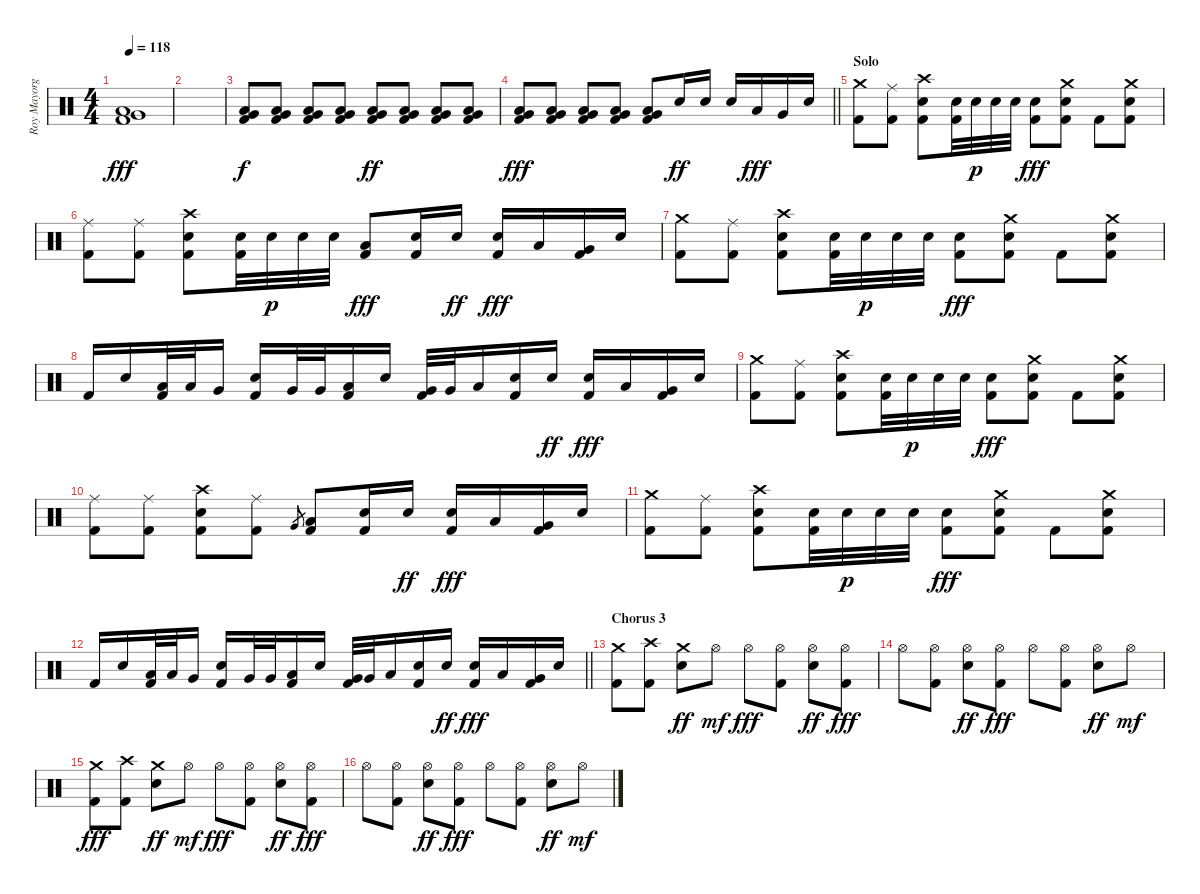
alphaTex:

\track ("Roy Mayorga" "Roy Mayorg") {instrument percussion}
\staff {score}
\articulation defaults
\ts (4 4)
\tempo 118
\clef neutral
\ks c
("Very Low Tom (hit)" "Low Floor Tom (hit)" "Kick (hit) 2").1{dy fff} |
|
("Very Low Tom (hit)" "Low Floor Tom (hit)" "Kick (hit) 2").8{dy f} ("Very Low Tom (hit)" "Low Floor Tom (hit)" "Kick (hit) 2").8 ("Very Low Tom (hit)" "Low Floor Tom (hit)" "Kick (hit) 2").8 ("Very Low Tom (hit)" "Low Floor Tom (hit)" "Kick (hit) 2").8 ("Very Low Tom (hit)" "Low Floor Tom (hit)" "Kick (hit) 2").8{dy ff} ("Very Low Tom (hit)" "Low Floor Tom (hit)" "Kick (hit) 2").8 ("Very Low Tom (hit)" "Low Floor Tom (hit)" "Kick (hit) 2").8 ("Very Low Tom (hit)" "Low Floor Tom (hit)" "Kick (hit) 2").8 |
\barLineRight lightlight
("Very Low Tom (hit)" "Low Floor Tom (hit)" "Kick (hit) 2").8{dy fff} ("Very Low Tom (hit)" "Low Floor Tom (hit)" "Kick (hit) 2").8 ("Very Low Tom (hit)" "Low Floor Tom (hit)" "Kick (hit) 2").8 ("Very Low Tom (hit)" "Low Floor Tom (hit)" "Kick (hit) 2").8 ("Very Low Tom (hit)" "Low Floor Tom (hit)" "Kick (hit) 2").8 "Electric Snare (hit)".16{dy ff} "Electric Snare (hit)".16 "Electric Snare (hit)".16 "Low Tom (hit)".16{dy fff} "Very Low Tom (hit)".16 "Electric Snare (hit)".16 |
\section ("" "Solo")
("Crash medium (hit)" "Kick (hit) 2").8 ("Ride (middle)" "Kick (hit) 2").8 ("Crash high (hit)" "Electric Snare (hit)" "Kick (hit) 2").8 ("Electric Snare (hit)" "Kick (hit) 2").32 "Electric Snare (hit)".32{dy p} "Electric Snare (hit)".32 "Electric Snare (hit)".32 ("Electric Snare (hit)" "Kick (hit) 2").8{dy fff} ("Crash medium (hit)" "Electric Snare (hit)" "Kick (hit) 2").8 "Kick (hit) 2".8 ("Crash medium (hit)" "Electric Snare (hit)" "Kick (hit) 2").8 |
("Ride (middle)" "Kick (hit) 2").8 ("Ride (middle)" "Kick (hit) 2").8 ("Crash high (hit)" "Electric Snare (hit)" "Kick (hit) 2").8 ("Electric Snare (hit)" "Kick (hit) 2").32 "Electric Snare (hit)".32{dy p} "Electric Snare (hit)".32 "Electric Snare (hit)".32 ("Low Tom (hit)" "Kick (hit) 2").8{dy fff} ("Electric Snare (hit)" "Kick (hit) 2").16 "Electric Snare (hit)".16{dy ff} ("Electric Snare (hit)" "Kick (hit) 2").16{dy fff} "Low Tom (hit)".16 ("Very Low Tom (hit)" "Kick (hit) 2").16 "Electric Snare (hit)".16 |
("Crash medium (hit)" "Kick (hit) 2").8 ("Ride (middle)" "Kick (hit) 2").8 ("Crash high (hit)" "Electric Snare (hit)" "Kick (hit) 2").8 ("Electric Snare (hit)" "Kick (hit) 2").32 "Electric Snare (hit)".32{dy p} "Electric Snare (hit)".32 "Electric Snare (hit)".32 ("Electric Snare (hit)" "Kick (hit) 2").8{dy fff} ("Crash medium (hit)" "Electric Snare (hit)" "Kick (hit) 2").8 "Kick (hit) 2".8 ("Crash medium (hit)" "Electric Snare (hit)" "Kick (hit) 2").8 |
"Kick (hit) 2".16 "Electric Snare (hit)".16 ("Low Tom (hit)" "Kick (hit) 2").32 "Low Tom (hit)".32 "Very Low Tom (hit)".16 ("Electric Snare (hit)" "Kick (hit) 2").16 "Very Low Tom (hit)".32 "Very Low Tom (hit)".32 ("Low Floor Tom (hit)" "Kick (hit) 2").16 "Electric Snare (hit)".16 ("Very Low Tom (hit)" "Kick (hit) 2").32 "Very Low Tom (hit)".32 "Low Floor Tom (hit)".16 ("Electric Snare (hit)" "Kick (hit) 2").16 "Electric Snare (hit)".16{dy ff} ("Electric Snare (hit)" "Kick (hit) 2").16{dy fff} "Low Tom (hit)".16 ("Very Low Tom (hit)" "Kick (hit) 2").16 "Electric Snare (hit)".16 |
("Crash medium (hit)" "Kick (hit) 2").8 ("Ride (middle)" "Kick (hit) 2").8 ("Crash high (hit)" "Electric Snare (hit)" "Kick (hit) 2").8 ("Electric Snare (hit)" "Kick (hit) 2").32 "Electric Snare (hit)".32{dy p} "Electric Snare (hit)".32 "Electric Snare (hit)".32 ("Electric Snare (hit)" "Kick (hit) 2").8{dy fff} ("Crash medium (hit)" "Electric Snare (hit)" "Kick (hit) 2").8 "Kick (hit) 2".8 ("Crash medium (hit)" "Electric Snare (hit)" "Kick (hit) 2").8 |
("Ride (middle)" "Kick (hit) 2").8 ("Ride (middle)" "Kick (hit) 2").8 ("Crash high (hit)" "Electric Snare (hit)" "Kick (hit) 2").8 ("Ride (middle)" "Kick (hit) 2").8 "Very Low Tom (hit)".8{gr} ("Low Tom (hit)" "Kick (hit) 2").8 ("Electric Snare (hit)" "Kick (hit) 2").16 "Electric Snare (hit)".16{dy ff} ("Electric Snare (hit)" "Kick (hit) 2").16{dy fff} "Low Tom (hit)".16 ("Very Low Tom (hit)" "Kick (hit) 2").16 "Electric Snare (hit)".16 |
("Crash medium (hit)" "Kick (hit) 2").8 ("Ride (middle)" "Kick (hit) 2").8 ("Crash high (hit)" "Electric Snare (hit)" "Kick (hit) 2").8 ("Electric Snare (hit)" "Kick (hit) 2").32 "Electric Snare (hit)".32{dy p} "Electric Snare (hit)".32 "Electric Snare (hit)".32 ("Electric Snare (hit)" "Kick (hit) 2").8{dy fff} ("Crash medium (hit)" "Electric Snare (hit)" "Kick (hit) 2").8 "Kick (hit) 2".8 ("Crash medium (hit)" "Electric Snare (hit)" "Kick (hit) 2").8 |
\barLineRight lightlight "Kick (hit) 2".16 "Electric Snare (hit)".16
("Low Tom (hit)" "Kick (hit) 2").32 "Low Tom (hit)".32 "Very Low Tom (hit)".16 ("Electric Snare (hit)" "Kick (hit) 2").16 "Very Low Tom (hit)".32 "Very Low Tom (hit)".32 ("Low Floor Tom (hit)" "Kick (hit) 2").16 "Electric Snare (hit)".16 ("Very Low Tom (hit)" "Kick (hit) 2").32 "Very Low Tom (hit)".32 "Low Floor Tom (hit)".16 ("Electric Snare (hit)" "Kick (hit) 2").16 "Electric Snare (hit)".16{dy ff} ("Electric Snare (hit)" "Kick (hit) 2").16{dy fff} "Low Tom (hit)".16 ("Very Low Tom (hit)" "Kick (hit) 2").16 "Electric Snare (hit)".16 |
\section ("" "Chorus 3")
("Crash medium (hit)" "Kick (hit) 2").8 ("Crash high (hit)" "Kick (hit) 2").8 ("Crash medium (hit)" "Electric Snare (hit)").8{dy ff} "Hi-Hat (open)".8{dy mf} "Hi-Hat (open)".8{dy fff} ("Hi-Hat (open)" "Kick (hit) 2").8 ("Hi-Hat (open)" "Electric Snare (hit)").8{dy ff} ("Hi-Hat (open)" "Kick (hit) 2").8{dy fff} |
"Hi-Hat (open)".8 ("Hi-Hat (open)" "Kick (hit) 2").8 ("Hi-Hat (open)" "Electric Snare (hit)").8{dy ff} ("Hi-Hat (open)" "Kick (hit) 2").8{dy fff} "Hi-Hat (open)".8 ("Hi-Hat (open)" "Kick (hit) 2").8 ("Hi-Hat (open)" "Electric Snare (hit)").8{dy ff} "Hi-Hat (open)".8{dy mf} |
("Crash medium (hit)" "Kick (hit) 2").8{dy fff} ("Crash high (hit)" "Kick (hit) 2").8 ("Crash medium (hit)" "Electric Snare (hit)").8{dy ff} "Hi-Hat (open)".8{dy mf} "Hi-Hat (open)".8{dy fff} ("Hi-Hat (open)" "Kick (hit) 2").8 ("Hi-Hat (open)" "Electric Snare (hit)").8{dy ff} ("Hi-Hat (open)" "Kick (hit) 2").8{dy fff} |
"Hi-Hat (open)".8 ("Hi-Hat (open)" "Kick (hit) 2").8 ("Hi-Hat (open)" "Electric Snare (hit)").8{dy ff} ("Hi-Hat (open)" "Kick (hit) 2").8{dy fff} "Hi-Hat (open)".8 ("Hi-Hat (open)" "Kick (hit) 2").8 ("Hi-Hat (open)" "Electric Snare (hit)").8{dy ff} "Hi-Hat (open)".8{dy mf}
